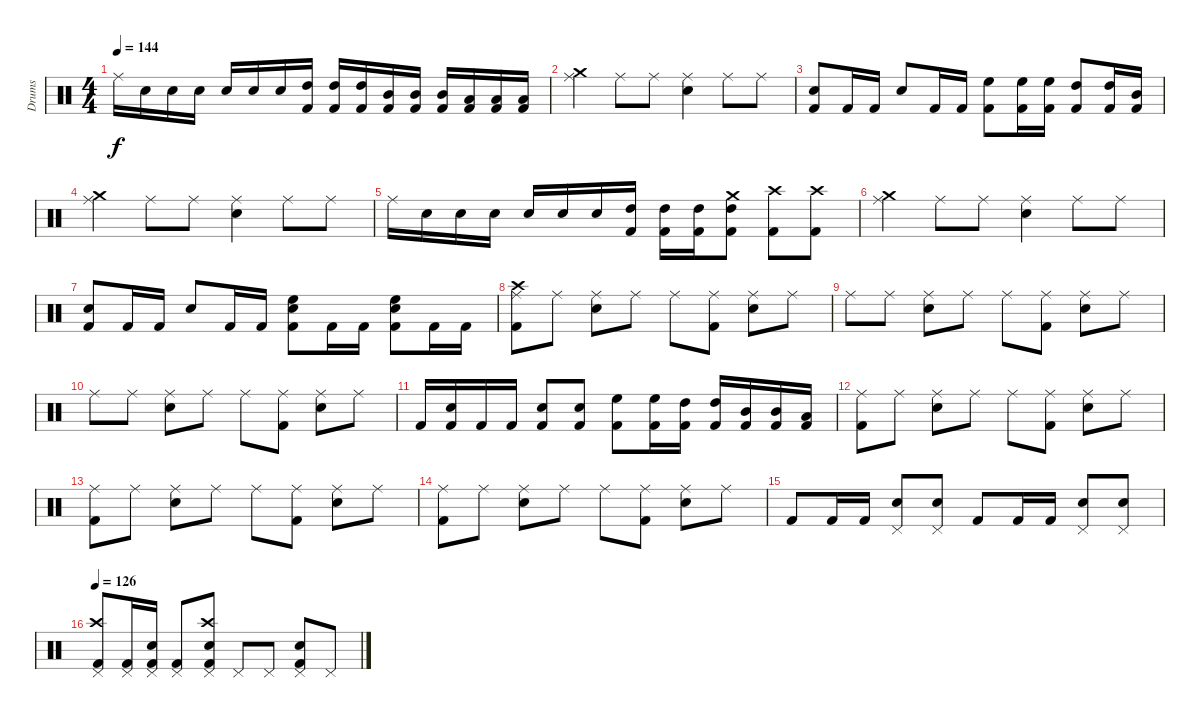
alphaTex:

\track ("Drums" "Drums") {instrument percussion}
\staff {score}
\articulation defaults
\ts (4 4)
\tempo 144
\clef neutral
\ks c "Ride (middle)".16{dy f} "Electric Snare (hit)".16 "Electric Snare (hit)".16 "Electric Snare (hit)".16 "Electric Snare (hit)".16 "Electric Snare (hit)".16 "Electric Snare (hit)".16
("High Tom (hit)" "Kick (hit) 2").16 ("High Tom (hit)" "Kick (hit) 2").16 ("High Tom (hit)" "Kick (hit) 2").16 ("Mid Tom (hit)" "Kick (hit) 2").16 ("Mid Tom (hit)" "Kick (hit) 2").16 ("Mid Tom (hit)" "Kick (hit) 2").16 ("Low Tom (hit)" "Kick (hit) 2").16 ("Low Tom (hit)" "Kick (hit) 2").16 ("Low Tom (hit)" "Kick (hit) 2").16 |
("Crash medium (hit)" "Ride (middle)").4 "Ride (middle)".8 "Ride (middle)".8 ("Electric Snare (hit)" "Ride (middle)").4 "Ride (middle)".8 "Ride (middle)".8 |
("Electric Snare (hit)" "Kick (hit) 2").8 "Kick (hit) 2".16 "Kick (hit) 2".16 "Electric Snare (hit)".8 "Kick (hit) 2".16 "Kick (hit) 2".16 ("High Floor Tom (hit)" "Kick (hit) 2").8 ("High Floor Tom (hit)" "Kick (hit) 2").16 ("High Floor Tom (hit)" "Kick (hit) 2").16 ("High Tom (hit)" "Kick (hit) 2").8 ("High Tom (hit)" "Kick (hit) 2").16 ("Mid Tom (hit)" "Kick (hit) 2").16 |
("Crash medium (hit)" "Ride (middle)").4 "Ride (middle)".8 "Ride (middle)".8 ("Electric Snare (hit)" "Ride (middle)").4 "Ride (middle)".8 "Ride (middle)".8 |
"Ride (middle)".16 "Electric Snare (hit)".16 "Electric Snare (hit)".16 "Electric Snare (hit)".16 "Electric Snare (hit)".16 "Electric Snare (hit)".16 "Electric Snare (hit)".16 ("High Tom (hit)" "Kick (hit) 2").16 ("High Tom (hit)" "Kick (hit) 2").16 ("High Tom (hit)" "Kick (hit) 2").16 ("Crash medium (hit)" "High Tom (hit)" "Kick (hit) 2").8 ("Crash high (hit)" "Kick (hit) 2").8 ("Crash high (hit)" "Kick (hit) 2").8 |
("Crash medium (hit)" "Ride (middle)").4 "Ride (middle)".8 "Ride (middle)".8 ("Electric Snare (hit)" "Ride (middle)").4 "Ride (middle)".8 "Ride (middle)".8 |
("Electric Snare (hit)" "Kick (hit) 2").8 "Kick (hit) 2".16 "Kick (hit) 2".16 "Electric Snare (hit)".8 "Kick (hit) 2".16 "Kick (hit) 2".16 ("High Floor Tom (hit)" "Electric Snare (hit)" "Kick (hit) 2").8 "Kick (hit) 2".16 "Kick (hit) 2".16 ("High Floor Tom (hit)" "Electric Snare (hit)" "Kick (hit) 2").8 "Kick (hit) 2".16 "Kick (hit) 2".16 |
("Crash high (hit)" "Kick (hit) 2" "Ride (middle)").8 "Ride (middle)".8 ("Electric Snare (hit)" "Ride (middle)").8 "Ride (middle)".8 "Ride (middle)".8 ("Kick (hit) 2" "Ride (middle)").8 ("Electric Snare (hit)" "Ride (middle)").8 "Ride (middle)".8 |
"Ride (middle)".8 "Ride (middle)".8 ("Electric Snare (hit)" "Ride (middle)").8 "Ride (middle)".8 "Ride (middle)".8 ("Kick (hit) 2" "Ride (middle)").8 ("Electric Snare (hit)" "Ride (middle)").8 "Ride (middle)".8 |
"Ride (middle)".8 "Ride (middle)".8 ("Electric Snare (hit)" "Ride (middle)").8 "Ride (middle)".8 "Ride (middle)".8 ("Kick (hit) 2" "Ride (middle)").8 ("Electric Snare (hit)" "Ride (middle)").8 "Ride (middle)".8 |
"Kick (hit) 2".16 ("Electric Snare (hit)" "Kick (hit) 2").16 "Kick (hit) 2".16 "Kick (hit) 2".16 ("Electric Snare (hit)" "Kick (hit) 2").8 ("Electric Snare (hit)" "Kick (hit) 2").8 ("High Floor Tom (hit)" "Kick (hit) 2").8 ("High Floor Tom (hit)" "Kick (hit) 2").16 ("High Tom (hit)" "Kick (hit) 2").16 ("High Tom (hit)" "Kick (hit) 2").16 ("Mid Tom (hit)" "Kick (hit) 2").16 ("Mid Tom (hit)" "Kick (hit) 2").16 ("Low Tom (hit)" "Kick (hit) 2").16 |
("Kick (hit) 2" "Ride (middle)").8 "Ride (middle)".8 ("Electric Snare (hit)" "Ride (middle)").8 "Ride (middle)".8 "Ride (middle)".8 ("Kick (hit) 2" "Ride (middle)").8 ("Electric Snare (hit)" "Ride (middle)").8 "Ride (middle)".8 |
("Kick (hit) 2" "Ride (middle)").8 "Ride (middle)".8 ("Electric Snare (hit)" "Ride (middle)").8 "Ride (middle)".8 "Ride (middle)".8 ("Kick (hit) 2" "Ride (middle)").8 ("Electric Snare (hit)" "Ride (middle)").8 "Ride (middle)".8 |
("Kick (hit) 2" "Ride (middle)").8 "Ride (middle)".8 ("Electric Snare (hit)" "Ride (middle)").8 "Ride (middle)".8 "Ride (middle)".8 ("Kick (hit) 2" "Ride (middle)").8 ("Electric Snare (hit)" "Ride (middle)").8 "Ride (middle)".8 |
"Kick (hit) 2".8 "Kick (hit) 2".16 "Kick (hit) 2".16 ("Electric Snare (hit)" "Pedal Hi-Hat (hit)").8 ("Electric Snare (hit)" "Pedal Hi-Hat (hit)").8 "Kick (hit) 2".8 "Kick (hit) 2".16 "Kick (hit) 2".16 ("Electric Snare (hit)" "Pedal Hi-Hat (hit)").8 ("Electric Snare (hit)" "Pedal Hi-Hat (hit)").8 |
\tempo 126
("Crash high (hit)" "Kick (hit) 2" "Pedal Hi-Hat (hit)").8 ("Kick (hit) 2" "Pedal Hi-Hat (hit)").16 ("Electric Snare (hit)" "Kick (hit) 2" "Pedal Hi-Hat (hit)").16 ("Kick (hit) 2" "Pedal Hi-Hat (hit)").8 ("Crash high (hit)" "Electric Snare (hit)" "Kick (hit) 2" "Pedal Hi-Hat (hit)").8 "Pedal Hi-Hat (hit)".8 "Pedal Hi-Hat (hit)".8 ("Electric Snare (hit)" "Kick (hit) 2" "Pedal Hi-Hat (hit)").8 "Pedal Hi-Hat (hit)".8
